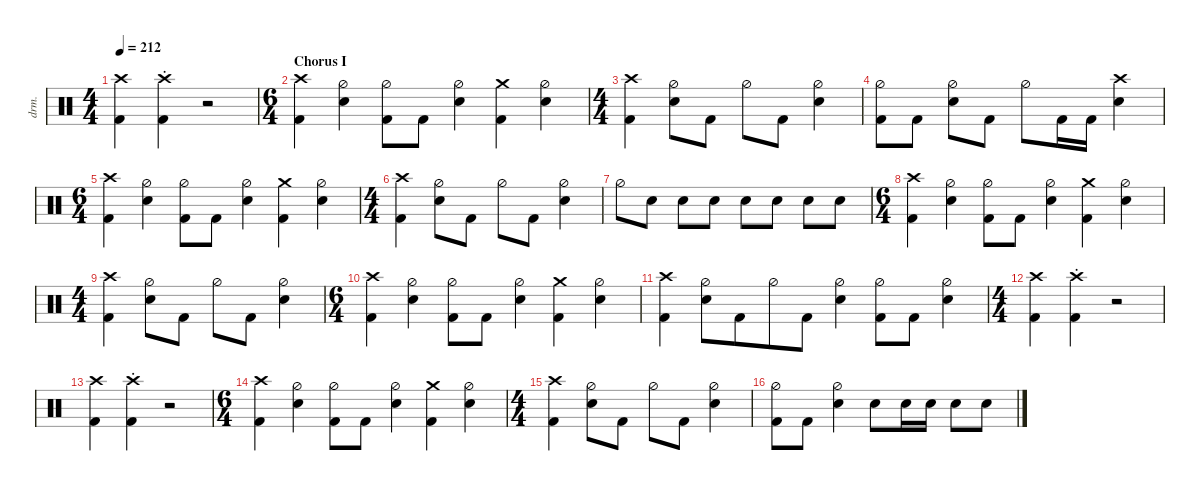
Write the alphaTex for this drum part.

\defaultSystemsLayout 4
\hideDynamics
\bracketExtendMode nobrackets
\track ("Drums" "drm.") {defaultSystemsLayout 4 multiBarRest instrument percussion}
\staff
\articulation defaults
\ts (4 4)
\tempo 212
\clef neutral
\ks c
("Kick (hit) 2" "Crash high (hit)").4{dy ff} ("Kick (hit) 2" "Crash high (hit)"{st}).4 r.2 |
\ts (6 4)
\beaming (8 6 6)
\section ("" "Chorus I")
("Crash high (hit)" "Kick (hit) 2").4{dy f} ("Hi-Hat (half)" "Snare (hit) 2").4 ("Hi-Hat (half)" "Kick (hit) 2").8 "Kick (hit) 2".8 ("Hi-Hat (half)" "Snare (hit) 2").4 ("Kick (hit) 2" "Crash medium (hit)").4 ("Hi-Hat (half)" "Snare (hit) 2").4 |
\ts (4 4)
\beaming (8 2 2 2 2)
("Crash high (hit)" "Kick (hit) 2").4 ("Hi-Hat (half)" "Snare (hit) 2").8 "Kick (hit) 2".8 "Hi-Hat (half)".8 "Kick (hit) 2".8 ("Hi-Hat (half)" "Snare (hit) 2").4 |
("Hi-Hat (half)" "Kick (hit) 2").8 "Kick (hit) 2".8 ("Hi-Hat (half)" "Snare (hit) 2").8 "Kick (hit) 2".8 "Hi-Hat (half)".8 "Kick (hit) 2".16 "Kick (hit) 2".16 ("Snare (hit) 2" "Crash high (hit)").4 |
\ts (6 4)
\beaming (8 6 6)
("Crash high (hit)" "Kick (hit) 2").4 ("Hi-Hat (half)" "Snare (hit) 2").4 ("Hi-Hat (half)" "Kick (hit) 2").8 "Kick (hit) 2".8 ("Hi-Hat (half)" "Snare (hit) 2").4 ("Kick (hit) 2" "Crash medium (hit)").4 ("Hi-Hat (half)" "Snare (hit) 2").4 |
\ts (4 4)
\beaming (8 2 2 2 2)
("Crash high (hit)" "Kick (hit) 2").4 ("Hi-Hat (half)" "Snare (hit) 2").8 "Kick (hit) 2".8 "Hi-Hat (half)".8 "Kick (hit) 2".8 ("Hi-Hat (half)" "Snare (hit) 2").4 |
"Hi-Hat (half)".8 "Snare (hit) 2".8 "Snare (hit) 2".8 "Snare (hit) 2".8 "Snare (hit) 2".8 "Snare (hit) 2".8 "Snare (hit) 2".8 "Snare (hit) 2".8 |
\ts (6 4)
\beaming (8 6 6)
("Crash high (hit)" "Kick (hit) 2").4 ("Hi-Hat (half)" "Snare (hit) 2").4 ("Hi-Hat (half)" "Kick (hit) 2").8 "Kick (hit) 2".8 ("Hi-Hat (half)" "Snare (hit) 2").4 ("Kick (hit) 2" "Crash medium (hit)").4 ("Hi-Hat (half)" "Snare (hit) 2").4 |
\ts (4 4)
\beaming (8 2 2 2 2)
("Crash high (hit)" "Kick (hit) 2").4 ("Hi-Hat (half)" "Snare (hit) 2").8 "Kick (hit) 2".8 "Hi-Hat (half)".8 "Kick (hit) 2".8 ("Hi-Hat (half)" "Snare (hit) 2").4 |
\ts (6 4)
\beaming (8 6 6)
("Crash high (hit)" "Kick (hit) 2").4 ("Hi-Hat (half)" "Snare (hit) 2").4 ("Hi-Hat (half)" "Kick (hit) 2").8 "Kick (hit) 2".8 ("Hi-Hat (half)" "Snare (hit) 2").4 ("Kick (hit) 2" "Crash medium (hit)").4 ("Hi-Hat (half)" "Snare (hit) 2").4 |
("Crash high (hit)" "Kick (hit) 2").4 ("Hi-Hat (half)" "Snare (hit) 2").8 "Kick (hit) 2".8 "Hi-Hat (half)".8 "Kick (hit) 2".8 ("Hi-Hat (half)" "Snare (hit) 2").4 ("Hi-Hat (half)" "Kick (hit) 2").8 "Kick (hit) 2".8 ("Hi-Hat (half)" "Snare (hit) 2").4 |
\ts (4 4)
\beaming (8 2 2 2 2)
("Kick (hit) 2" "Crash high (hit)").4{dy ff} ("Kick (hit) 2" "Crash high (hit)"{st}).4 r.2 |
("Kick (hit) 2" "Crash high (hit)").4 ("Kick (hit) 2" "Crash high (hit)"{st}).4 r.2 |
\ts (6 4)
\beaming (8 6 6)
("Crash high (hit)" "Kick (hit) 2").4{dy f} ("Hi-Hat (half)" "Snare (hit) 2").4 ("Hi-Hat (half)" "Kick (hit) 2").8 "Kick (hit) 2".8 ("Hi-Hat (half)" "Snare (hit) 2").4 ("Kick (hit) 2" "Crash medium (hit)").4 ("Hi-Hat (half)" "Snare (hit) 2").4 |
\ts (4 4)
\beaming (8 2 2 2 2)
("Crash high (hit)" "Kick (hit) 2").4 ("Hi-Hat (half)" "Snare (hit) 2").8 "Kick (hit) 2".8 "Hi-Hat (half)".8 "Kick (hit) 2".8 ("Hi-Hat (half)" "Snare (hit) 2").4 |
("Hi-Hat (half)" "Kick (hit) 2").8 "Kick (hit) 2".8 ("Hi-Hat (half)" "Snare (hit) 2").4 "Snare (hit) 2".8 "Snare (hit) 2".16{dy mp} "Snare (hit) 2".16 "Snare (hit) 2".8{dy f} "Snare (hit) 2".8
